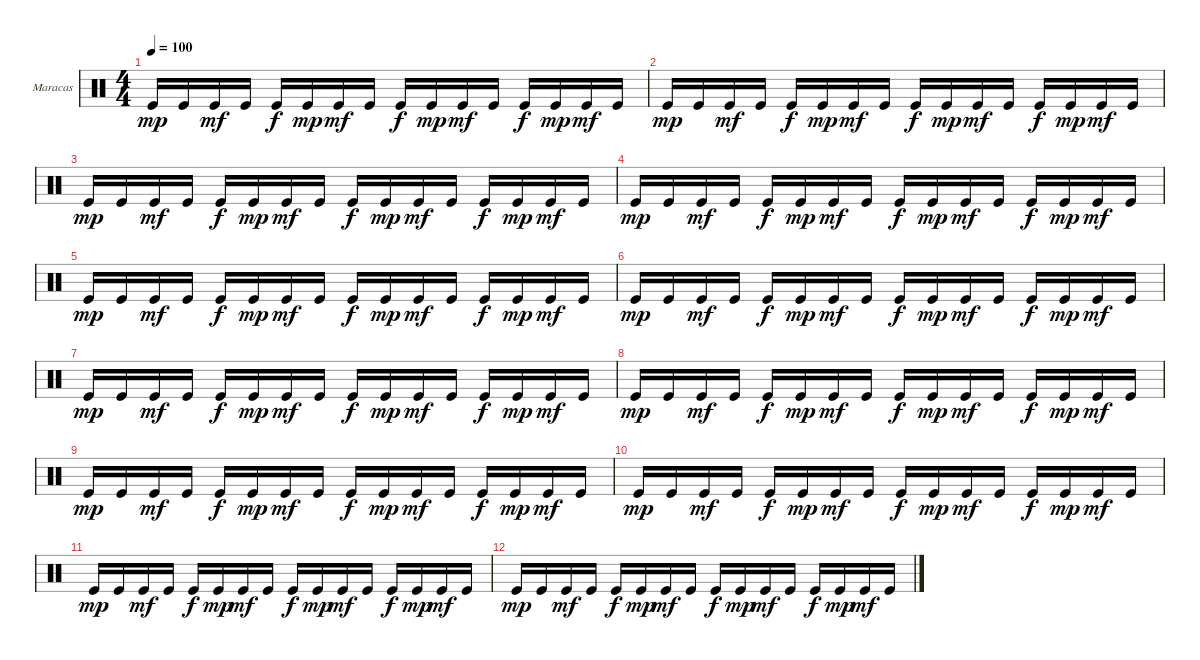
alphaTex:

\defaultSystemsLayout 4
\bracketExtendMode groupsimilarinstruments
\firstSystemTrackNameOrientation horizontal
\otherSystemsTrackNameOrientation horizontal
\track ("Maracas" "Maracas") {instrument percussion}
\staff {score}
\articulation defaults
\ts (4 4)
\tempo 100
\clef neutral
\ks c "Kick (hit)".16{dy mp} "Kick (hit)".16 "Kick (hit)".16{dy mf} "Kick (hit)".16 "Kick (hit)".16{dy f} "Kick (hit)".16{dy mp} "Kick (hit)".16{dy mf} "Kick (hit)".16 "Kick (hit)".16{dy f} "Kick (hit)".16{dy mp} "Kick (hit)".16{dy mf} "Kick (hit)".16 "Kick (hit)".16{dy f} "Kick (hit)".16{dy mp} "Kick (hit)".16{dy mf} "Kick (hit)".16
|
"Kick (hit)".16{dy mp} "Kick (hit)".16 "Kick (hit)".16{dy mf} "Kick (hit)".16 "Kick (hit)".16{dy f} "Kick (hit)".16{dy mp} "Kick (hit)".16{dy mf} "Kick (hit)".16 "Kick (hit)".16{dy f} "Kick (hit)".16{dy mp} "Kick (hit)".16{dy mf} "Kick (hit)".16 "Kick (hit)".16{dy f} "Kick (hit)".16{dy mp} "Kick (hit)".16{dy mf} "Kick (hit)".16 |
"Kick (hit)".16{dy mp} "Kick (hit)".16 "Kick (hit)".16{dy mf} "Kick (hit)".16 "Kick (hit)".16{dy f} "Kick (hit)".16{dy mp} "Kick (hit)".16{dy mf} "Kick (hit)".16 "Kick (hit)".16{dy f} "Kick (hit)".16{dy mp} "Kick (hit)".16{dy mf} "Kick (hit)".16 "Kick (hit)".16{dy f} "Kick (hit)".16{dy mp} "Kick (hit)".16{dy mf} "Kick (hit)".16 |
"Kick (hit)".16{dy mp} "Kick (hit)".16 "Kick (hit)".16{dy mf} "Kick (hit)".16 "Kick (hit)".16{dy f} "Kick (hit)".16{dy mp} "Kick (hit)".16{dy mf} "Kick (hit)".16 "Kick (hit)".16{dy f} "Kick (hit)".16{dy mp} "Kick (hit)".16{dy mf} "Kick (hit)".16 "Kick (hit)".16{dy f} "Kick (hit)".16{dy mp} "Kick (hit)".16{dy mf} "Kick (hit)".16 |
"Kick (hit)".16{dy mp} "Kick (hit)".16 "Kick (hit)".16{dy mf} "Kick (hit)".16 "Kick (hit)".16{dy f} "Kick (hit)".16{dy mp} "Kick (hit)".16{dy mf} "Kick (hit)".16 "Kick (hit)".16{dy f} "Kick (hit)".16{dy mp} "Kick (hit)".16{dy mf} "Kick (hit)".16 "Kick (hit)".16{dy f} "Kick (hit)".16{dy mp} "Kick (hit)".16{dy mf} "Kick (hit)".16 |
"Kick (hit)".16{dy mp} "Kick (hit)".16 "Kick (hit)".16{dy mf} "Kick (hit)".16 "Kick (hit)".16{dy f} "Kick (hit)".16{dy mp} "Kick (hit)".16{dy mf} "Kick (hit)".16 "Kick (hit)".16{dy f} "Kick (hit)".16{dy mp} "Kick (hit)".16{dy mf} "Kick (hit)".16 "Kick (hit)".16{dy f} "Kick (hit)".16{dy mp} "Kick (hit)".16{dy mf} "Kick (hit)".16 |
"Kick (hit)".16{dy mp} "Kick (hit)".16 "Kick (hit)".16{dy mf} "Kick (hit)".16 "Kick (hit)".16{dy f} "Kick (hit)".16{dy mp} "Kick (hit)".16{dy mf} "Kick (hit)".16 "Kick (hit)".16{dy f} "Kick (hit)".16{dy mp} "Kick (hit)".16{dy mf} "Kick (hit)".16 "Kick (hit)".16{dy f} "Kick (hit)".16{dy mp} "Kick (hit)".16{dy mf} "Kick (hit)".16 |
"Kick (hit)".16{dy mp} "Kick (hit)".16 "Kick (hit)".16{dy mf} "Kick (hit)".16 "Kick (hit)".16{dy f} "Kick (hit)".16{dy mp} "Kick (hit)".16{dy mf} "Kick (hit)".16 "Kick (hit)".16{dy f} "Kick (hit)".16{dy mp} "Kick (hit)".16{dy mf} "Kick (hit)".16 "Kick (hit)".16{dy f} "Kick (hit)".16{dy mp} "Kick (hit)".16{dy mf} "Kick (hit)".16 |
"Kick (hit)".16{dy mp} "Kick (hit)".16 "Kick (hit)".16{dy mf} "Kick (hit)".16 "Kick (hit)".16{dy f} "Kick (hit)".16{dy mp} "Kick (hit)".16{dy mf} "Kick (hit)".16 "Kick (hit)".16{dy f} "Kick (hit)".16{dy mp} "Kick (hit)".16{dy mf} "Kick (hit)".16 "Kick (hit)".16{dy f} "Kick (hit)".16{dy mp} "Kick (hit)".16{dy mf} "Kick (hit)".16 |
"Kick (hit)".16{dy mp} "Kick (hit)".16 "Kick (hit)".16{dy mf} "Kick (hit)".16 "Kick (hit)".16{dy f} "Kick (hit)".16{dy mp} "Kick (hit)".16{dy mf} "Kick (hit)".16 "Kick (hit)".16{dy f} "Kick (hit)".16{dy mp} "Kick (hit)".16{dy mf} "Kick (hit)".16 "Kick (hit)".16{dy f} "Kick (hit)".16{dy mp} "Kick (hit)".16{dy mf} "Kick (hit)".16 |
"Kick (hit)".16{dy mp} "Kick (hit)".16 "Kick (hit)".16{dy mf} "Kick (hit)".16 "Kick (hit)".16{dy f} "Kick (hit)".16{dy mp} "Kick (hit)".16{dy mf} "Kick (hit)".16 "Kick (hit)".16{dy f} "Kick (hit)".16{dy mp} "Kick (hit)".16{dy mf} "Kick (hit)".16 "Kick (hit)".16{dy f} "Kick (hit)".16{dy mp} "Kick (hit)".16{dy mf} "Kick (hit)".16 |
"Kick (hit)".16{dy mp} "Kick (hit)".16 "Kick (hit)".16{dy mf} "Kick (hit)".16 "Kick (hit)".16{dy f} "Kick (hit)".16{dy mp} "Kick (hit)".16{dy mf} "Kick (hit)".16 "Kick (hit)".16{dy f} "Kick (hit)".16{dy mp} "Kick (hit)".16{dy mf} "Kick (hit)".16 "Kick (hit)".16{dy f} "Kick (hit)".16{dy mp} "Kick (hit)".16{dy mf} "Kick (hit)".16
